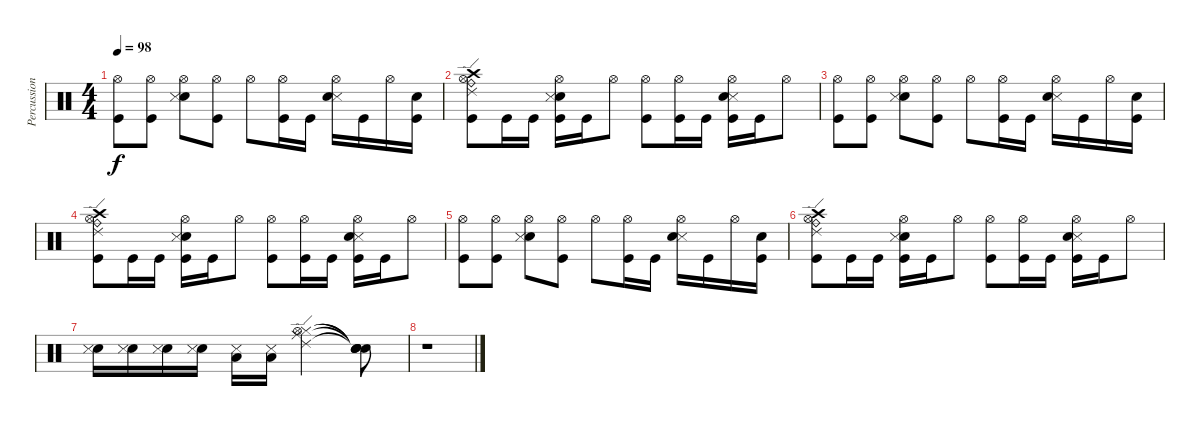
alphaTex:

\track ("Percussion" "Percussion") {instrument percussion}
\staff {score}
\articulation defaults
\ts (4 4)
\tempo 98
\clef neutral
\ks c
("Kick (hit)" "Hi-Hat (open)").8{dy f} ("Kick (hit)" "Hi-Hat (open)").8 ("Electric Snare (hit)" "Snare (side stick) 3" "Hi-Hat (open)").8 ("Kick (hit)" "Hi-Hat (open)").8 "Hi-Hat (open)".8 ("Kick (hit)" "Hi-Hat (open)").16 "Kick (hit)".16 ("Snare (side stick) 3" "Electric Snare (hit)" "Hi-Hat (open)").16 "Kick (hit)".16 "Hi-Hat (open)".16 ("Kick (hit)" "Electric Snare (hit)").16 |
("Crash high (hit)" "Ride (edge) 2" "Kick (hit)" "Hi-Hat (open)" "Ride (bell)").8 "Kick (hit)".16 "Kick (hit)".16 ("Electric Snare (hit)" "Snare (side stick) 3" "Kick (hit)" "Hi-Hat (open)").16 "Kick (hit)".16 "Hi-Hat (open)".8 ("Kick (hit)" "Hi-Hat (open)").8 ("Kick (hit)" "Hi-Hat (open)").16 "Kick (hit)".16 ("Snare (side stick) 3" "Electric Snare (hit)" "Kick (hit)" "Hi-Hat (open)").16 "Kick (hit)".16 "Hi-Hat (open)".8 |
("Kick (hit)" "Hi-Hat (open)").8 ("Kick (hit)" "Hi-Hat (open)").8 ("Electric Snare (hit)" "Snare (side stick) 3" "Hi-Hat (open)").8 ("Kick (hit)" "Hi-Hat (open)").8 "Hi-Hat (open)".8 ("Kick (hit)" "Hi-Hat (open)").16 "Kick (hit)".16 ("Snare (side stick) 3" "Electric Snare (hit)" "Hi-Hat (open)").16 "Kick (hit)".16 "Hi-Hat (open)".16 ("Kick (hit)" "Electric Snare (hit)").16 |
("Crash high (hit)" "Ride (edge) 2" "Kick (hit)" "Hi-Hat (open)" "Ride (bell)").8 "Kick (hit)".16 "Kick (hit)".16 ("Electric Snare (hit)" "Snare (side stick) 3" "Kick (hit)" "Hi-Hat (open)").16 "Kick (hit)".16 "Hi-Hat (open)".8 ("Kick (hit)" "Hi-Hat (open)").8 ("Kick (hit)" "Hi-Hat (open)").16 "Kick (hit)".16 ("Snare (side stick) 3" "Electric Snare (hit)" "Kick (hit)" "Hi-Hat (open)").16 "Kick (hit)".16 "Hi-Hat (open)".8 |
("Kick (hit)" "Hi-Hat (open)").8 ("Kick (hit)" "Hi-Hat (open)").8 ("Electric Snare (hit)" "Snare (side stick) 3" "Hi-Hat (open)").8 ("Kick (hit)" "Hi-Hat (open)").8 "Hi-Hat (open)".8 ("Kick (hit)" "Hi-Hat (open)").16 "Kick (hit)".16 ("Snare (side stick) 3" "Electric Snare (hit)" "Hi-Hat (open)").16 "Kick (hit)".16 "Hi-Hat (open)".16 ("Kick (hit)" "Electric Snare (hit)").16 |
("Crash high (hit)" "Ride (edge) 2" "Kick (hit)" "Hi-Hat (open)" "Ride (bell)").8 "Kick (hit)".16 "Kick (hit)".16 ("Electric Snare (hit)" "Snare (side stick) 3" "Kick (hit)" "Hi-Hat (open)").16 "Kick (hit)".16 "Hi-Hat (open)".8 ("Kick (hit)" "Hi-Hat (open)").8 ("Kick (hit)" "Hi-Hat (open)").16 "Kick (hit)".16 ("Snare (side stick) 3" "Electric Snare (hit)" "Kick (hit)" "Hi-Hat (open)").16 "Kick (hit)".16 "Hi-Hat (open)".8 |
("Electric Snare (hit)" "Snare (side stick) 3").16 ("Electric Snare (hit)" "Snare (side stick) 3").16 ("Electric Snare (hit)" "Snare (side stick) 3").16 ("Electric Snare (hit)" "Snare (side stick) 3").16 ("Snare (side stick) 3" "Low Floor Tom (hit)").16 ("Snare (side stick) 3" "Low Floor Tom (hit)").16 ("Hi-Hat (closed)" "Hi-Hat (open)" "Ride (middle)" "Ride (edge) 2").2 ("Snare (hit)"{t} "Snare (hit)"{t} "Snare (hit)"{t} "Snare (hit)"{t}).8 |
r.1
